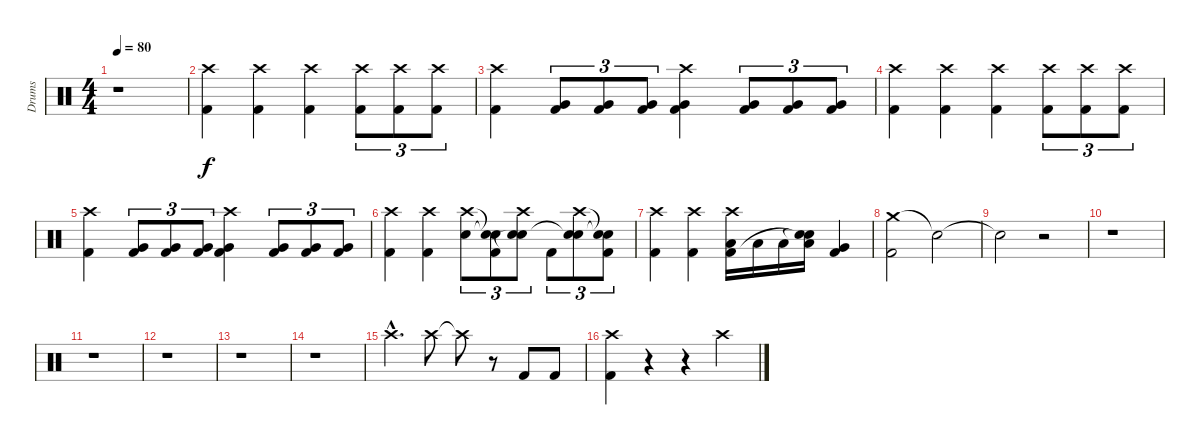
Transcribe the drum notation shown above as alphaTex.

\track ("Drums" "Drums") {instrument percussion}
\staff {score}
\articulation defaults
\ts (4 4)
\tempo 80
\clef neutral
\ks c
r.1{dy f} |
("Crash high (hit)" "Kick (hit) 2").4 ("Crash high (hit)" "Kick (hit) 2").4 ("Crash high (hit)" "Kick (hit) 2").4 ("Crash high (hit)" "Kick (hit) 2").8{tu (3 2)} ("Crash high (hit)" "Kick (hit) 2").8{tu (3 2)} ("Crash high (hit)" "Kick (hit) 2").8{tu (3 2)} |
("Crash high (hit)" "Kick (hit) 2").4 ("Very Low Tom (hit)" "Kick (hit) 2").8{tu (3 2)} ("Very Low Tom (hit)" "Kick (hit) 2").8{tu (3 2)} ("Very Low Tom (hit)" "Kick (hit) 2").8{tu (3 2)} ("Crash high (hit)" "Very Low Tom (hit)" "Kick (hit) 2").4 ("Very Low Tom (hit)" "Kick (hit) 2").8{tu (3 2)} ("Very Low Tom (hit)" "Kick (hit) 2").8{tu (3 2)} ("Very Low Tom (hit)" "Kick (hit) 2").8{tu (3 2)} |
("Crash high (hit)" "Kick (hit) 2").4 ("Crash high (hit)" "Kick (hit) 2").4 ("Crash high (hit)" "Kick (hit) 2").4 ("Crash high (hit)" "Kick (hit) 2").8{tu (3 2)} ("Crash high (hit)" "Kick (hit) 2").8{tu (3 2)} ("Crash high (hit)" "Kick (hit) 2").8{tu (3 2)} |
("Crash high (hit)" "Kick (hit) 2").4 ("Very Low Tom (hit)" "Kick (hit) 2").8{tu (3 2)} ("Very Low Tom (hit)" "Kick (hit) 2").8{tu (3 2)} ("Very Low Tom (hit)" "Kick (hit) 2").8{tu (3 2)} ("Crash high (hit)" "Very Low Tom (hit)" "Kick (hit) 2").4 ("Very Low Tom (hit)" "Kick (hit) 2").8{tu (3 2)} ("Very Low Tom (hit)" "Kick (hit) 2").8{tu (3 2)} ("Very Low Tom (hit)" "Kick (hit) 2").8{tu (3 2)} |
("Crash high (hit)" "Kick (hit) 2").4 ("Crash high (hit)" "Kick (hit) 2").4 ("Crash high (hit)" "Snare (hit) 2").8{tu (3 2)} ("Snare (hit)"{t} "Snare (hit)"{t} "Kick (hit) 2").8{tu (3 2)} ("Crash high (hit)" "Snare (hit) 2" "Snare (hit)"{t}).8{tu (3 2)} "Kick (hit) 2".8{tu (3 2)} ("Crash high (hit)" "Snare (hit) 2" "Snare (hit)"{t}).8{tu (3 2)} ("Snare (hit)"{t} "Snare (hit)"{t} "Kick (hit) 2").8{tu (3 2)} |
("Crash high (hit)" "Kick (hit) 2").4 ("Crash high (hit)" "Kick (hit) 2").4 ("Crash high (hit)" "Low Tom (hit)" "Kick (hit) 2").16 "Low Tom (hit)".16 "Low Tom (hit)".16 ("Snare (hit)"{t} "Low Tom (hit)" "Snare (hit)"{t}).16 ("Very Low Tom (hit)" "Kick (hit) 2").4 |
("Crash medium (hit)" "Kick (hit) 2").2 "Snare (hit)"{t}.2 |
"Snare (hit)"{t}.2 r.2 |
r.1 |
r.1 |
r.1 |
r.1 |
r.1 |
"Crash high (hit)"{hac}.4{d} "Crash high (hit)".8 "Crash high (hit)"{t}.8 r.8 "Kick (hit) 2".8 "Kick (hit) 2".8 |
("Crash high (hit)" "Kick (hit) 2").4 r.4 r.4 "Crash high (hit)".4
